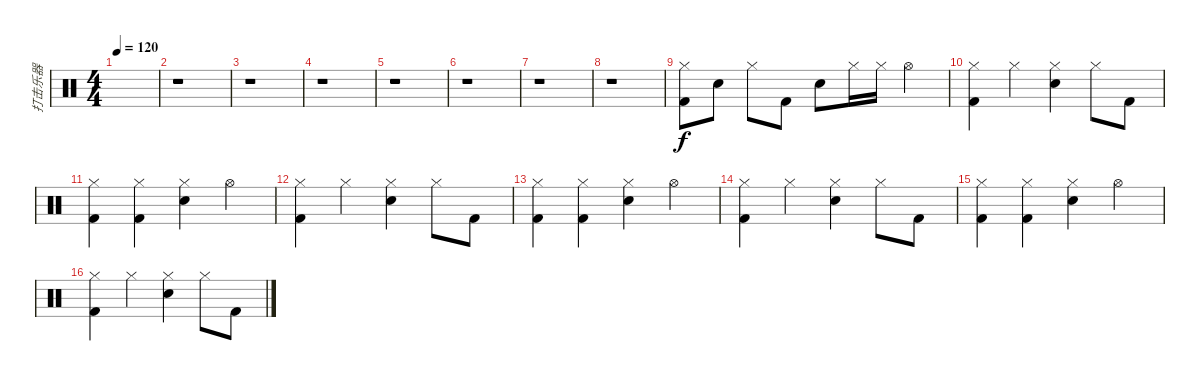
\track ("打击乐器" "打击乐器") {instrument percussion}
\staff {score}
\articulation defaults
\ts (4 4)
\tempo 120
\clef neutral
\ks c
|
r.1 |
r.1 |
r.1 |
r.1 |
r.1 |
r.1 |
r.1 |
("Hi-Hat (closed)" "Kick (hit) 2").8 "Electric Snare (hit)".8 "Hi-Hat (closed)".8 "Kick (hit) 2".8 "Electric Snare (hit)".8 "Hi-Hat (closed)".16 "Hi-Hat (closed)".16 "Hi-Hat (open)".4 |
("Hi-Hat (closed)" "Kick (hit) 2").4 "Hi-Hat (closed)".4 ("Hi-Hat (closed)" "Electric Snare (hit)").4 "Hi-Hat (closed)".8 "Kick (hit) 2".8 |
("Hi-Hat (closed)" "Kick (hit) 2").4 ("Hi-Hat (closed)" "Kick (hit) 2").4 ("Hi-Hat (closed)" "Electric Snare (hit)").4 "Hi-Hat (open)".4 |
("Hi-Hat (closed)" "Kick (hit) 2").4 "Hi-Hat (closed)".4 ("Hi-Hat (closed)" "Electric Snare (hit)").4 "Hi-Hat (closed)".8 "Kick (hit) 2".8 |
("Hi-Hat (closed)" "Kick (hit) 2").4 ("Hi-Hat (closed)" "Kick (hit) 2").4 ("Hi-Hat (closed)" "Electric Snare (hit)").4 "Hi-Hat (open)".4 |
("Hi-Hat (closed)" "Kick (hit) 2").4 "Hi-Hat (closed)".4 ("Hi-Hat (closed)" "Electric Snare (hit)").4 "Hi-Hat (closed)".8 "Kick (hit) 2".8 |
("Hi-Hat (closed)" "Kick (hit) 2").4 ("Hi-Hat (closed)" "Kick (hit) 2").4 ("Hi-Hat (closed)" "Electric Snare (hit)").4 "Hi-Hat (open)".4 |
("Hi-Hat (closed)" "Kick (hit) 2").4 "Hi-Hat (closed)".4 ("Hi-Hat (closed)" "Electric Snare (hit)").4 "Hi-Hat (closed)".8 "Kick (hit) 2".8
